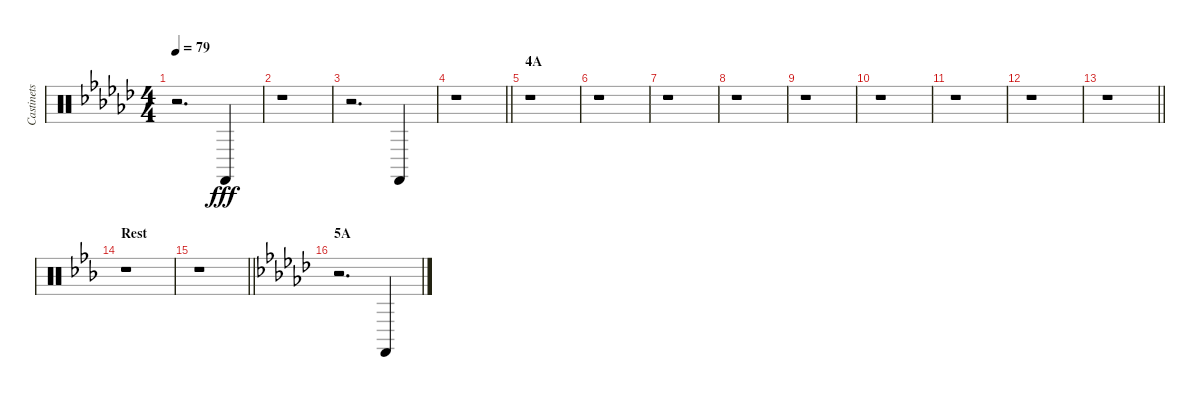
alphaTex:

\track ("Castinets" "Castinets") {instrument percussion}
\staff {score}
\articulation defaults
\ts (4 4)
\tempo 79
\clef neutral
\ks gb
r.2{d dy fff} "Castanets (hit)".4 |
r.1 |
r.2{d} "Castanets (hit)".4 |
\barLineRight lightlight
r.1 |
\section ("" "4A")
r.1 |
r.1 |
r.1 |
r.1 |
r.1 |
r.1 |
r.1 |
r.1 |
\barLineRight lightlight
r.1 |
\section ("" "Rest")
\ks eb
r.1 |
\barLineRight lightlight
r.1 |
\section ("" "5A")
\ks gb
r.2{d} "Castanets (hit)".4
